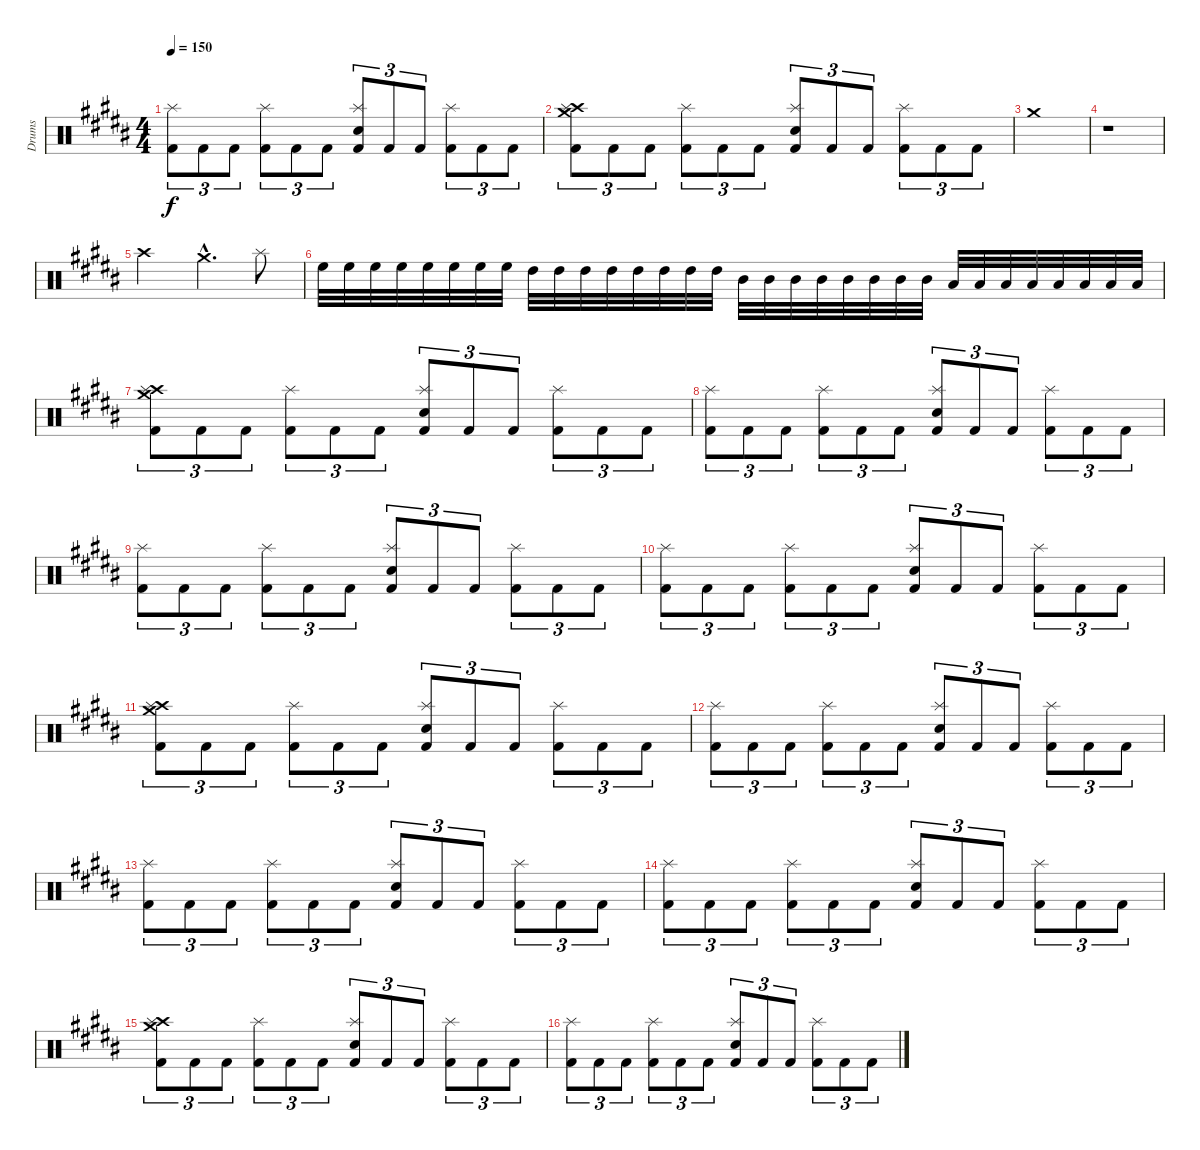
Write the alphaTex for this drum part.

\track ("Drums" "Drums") {instrument percussion}
\staff {score}
\articulation defaults
\ts (4 4)
\tempo 150
\clef neutral
\ks b
("Kick (hit) 2" "Splash (hit)").8{tu (3 2) dy f} "Kick (hit) 2".8{tu (3 2)} "Kick (hit) 2".8{tu (3 2)} ("Kick (hit) 2" "Splash (hit)").8{tu (3 2)} "Kick (hit) 2".8{tu (3 2)} "Kick (hit) 2".8{tu (3 2)} ("Kick (hit) 2" "Snare (hit) 2" "Splash (hit)").8{tu (3 2)} "Kick (hit) 2".8{tu (3 2)} "Kick (hit) 2".8{tu (3 2)} ("Kick (hit) 2" "Splash (hit)").8{tu (3 2)} "Kick (hit) 2".8{tu (3 2)} "Kick (hit) 2".8{tu (3 2)} |
("Kick (hit) 2" "Crash high (hit)" "Crash medium (hit)" "Splash (hit)").8{tu (3 2)} "Kick (hit) 2".8{tu (3 2)} "Kick (hit) 2".8{tu (3 2)} ("Kick (hit) 2" "Splash (hit)").8{tu (3 2)} "Kick (hit) 2".8{tu (3 2)} "Kick (hit) 2".8{tu (3 2)} ("Kick (hit) 2" "Snare (hit) 2" "Splash (hit)").8{tu (3 2)} "Kick (hit) 2".8{tu (3 2)} "Kick (hit) 2".8{tu (3 2)} ("Kick (hit) 2" "Splash (hit)").8{tu (3 2)} "Kick (hit) 2".8{tu (3 2)} "Kick (hit) 2".8{tu (3 2)} |
"Crash medium (hit)".1{volume 10} |
r.1 |
"Crash high (hit)".2 "Crash medium (hit)"{hac}.4{d} "Splash (hit)".8 |
"High Floor Tom (hit)".32 "High Floor Tom (hit)".32 "High Floor Tom (hit)".32 "High Floor Tom (hit)".32 "High Floor Tom (hit)".32 "High Floor Tom (hit)".32 "High Floor Tom (hit)".32 "High Floor Tom (hit)".32 "High Tom (hit)".32 "High Tom (hit)".32 "High Tom (hit)".32 "High Tom (hit)".32 "High Tom (hit)".32 "High Tom (hit)".32 "High Tom (hit)".32 "High Tom (hit)".32 "Mid Tom (hit)".32 "Mid Tom (hit)".32 "Mid Tom (hit)".32 "Mid Tom (hit)".32 "Mid Tom (hit)".32 "Mid Tom (hit)".32 "Mid Tom (hit)".32 "Mid Tom (hit)".32 "Low Tom (hit)".32 "Low Tom (hit)".32 "Low Tom (hit)".32 "Low Tom (hit)".32 "Low Tom (hit)".32 "Low Tom (hit)".32 "Low Tom (hit)".32 "Low Tom (hit)".32 |
("Kick (hit) 2" "Crash high (hit)" "Crash medium (hit)" "Splash (hit)").8{tu (3 2) volume 7} "Kick (hit) 2".8{tu (3 2)} "Kick (hit) 2".8{tu (3 2)} ("Kick (hit) 2" "Splash (hit)").8{tu (3 2)} "Kick (hit) 2".8{tu (3 2)} "Kick (hit) 2".8{tu (3 2)} ("Kick (hit) 2" "Snare (hit) 2" "Splash (hit)").8{tu (3 2)} "Kick (hit) 2".8{tu (3 2)} "Kick (hit) 2".8{tu (3 2)} ("Kick (hit) 2" "Splash (hit)").8{tu (3 2)} "Kick (hit) 2".8{tu (3 2)} "Kick (hit) 2".8{tu (3 2)} |
("Kick (hit) 2" "Splash (hit)").8{tu (3 2)} "Kick (hit) 2".8{tu (3 2)} "Kick (hit) 2".8{tu (3 2)} ("Kick (hit) 2" "Splash (hit)").8{tu (3 2)} "Kick (hit) 2".8{tu (3 2)} "Kick (hit) 2".8{tu (3 2)} ("Kick (hit) 2" "Snare (hit) 2" "Splash (hit)").8{tu (3 2)} "Kick (hit) 2".8{tu (3 2)} "Kick (hit) 2".8{tu (3 2)} ("Kick (hit) 2" "Splash (hit)").8{tu (3 2)} "Kick (hit) 2".8{tu (3 2)} "Kick (hit) 2".8{tu (3 2)} |
("Kick (hit) 2" "Splash (hit)").8{tu (3 2)} "Kick (hit) 2".8{tu (3 2)} "Kick (hit) 2".8{tu (3 2)} ("Kick (hit) 2" "Splash (hit)").8{tu (3 2)} "Kick (hit) 2".8{tu (3 2)} "Kick (hit) 2".8{tu (3 2)} ("Kick (hit) 2" "Snare (hit) 2" "Splash (hit)").8{tu (3 2)} "Kick (hit) 2".8{tu (3 2)} "Kick (hit) 2".8{tu (3 2)} ("Kick (hit) 2" "Splash (hit)").8{tu (3 2)} "Kick (hit) 2".8{tu (3 2)} "Kick (hit) 2".8{tu (3 2)} |
("Kick (hit) 2" "Splash (hit)").8{tu (3 2)} "Kick (hit) 2".8{tu (3 2)} "Kick (hit) 2".8{tu (3 2)} ("Kick (hit) 2" "Splash (hit)").8{tu (3 2)} "Kick (hit) 2".8{tu (3 2)} "Kick (hit) 2".8{tu (3 2)} ("Kick (hit) 2" "Snare (hit) 2" "Splash (hit)").8{tu (3 2)} "Kick (hit) 2".8{tu (3 2)} "Kick (hit) 2".8{tu (3 2)} ("Kick (hit) 2" "Splash (hit)").8{tu (3 2)} "Kick (hit) 2".8{tu (3 2)} "Kick (hit) 2".8{tu (3 2)} |
("Kick (hit) 2" "Crash high (hit)" "Crash medium (hit)" "Splash (hit)").8{tu (3 2) volume 5} "Kick (hit) 2".8{tu (3 2)} "Kick (hit) 2".8{tu (3 2)} ("Kick (hit) 2" "Splash (hit)").8{tu (3 2)} "Kick (hit) 2".8{tu (3 2)} "Kick (hit) 2".8{tu (3 2)} ("Kick (hit) 2" "Snare (hit) 2" "Splash (hit)").8{tu (3 2)} "Kick (hit) 2".8{tu (3 2)} "Kick (hit) 2".8{tu (3 2)} ("Kick (hit) 2" "Splash (hit)").8{tu (3 2)} "Kick (hit) 2".8{tu (3 2)} "Kick (hit) 2".8{tu (3 2)} |
("Kick (hit) 2" "Splash (hit)").8{tu (3 2)} "Kick (hit) 2".8{tu (3 2)} "Kick (hit) 2".8{tu (3 2)} ("Kick (hit) 2" "Splash (hit)").8{tu (3 2)} "Kick (hit) 2".8{tu (3 2)} "Kick (hit) 2".8{tu (3 2)} ("Kick (hit) 2" "Snare (hit) 2" "Splash (hit)").8{tu (3 2)} "Kick (hit) 2".8{tu (3 2)} "Kick (hit) 2".8{tu (3 2)} ("Kick (hit) 2" "Splash (hit)").8{tu (3 2)} "Kick (hit) 2".8{tu (3 2)} "Kick (hit) 2".8{tu (3 2)} |
("Kick (hit) 2" "Splash (hit)").8{tu (3 2)} "Kick (hit) 2".8{tu (3 2)} "Kick (hit) 2".8{tu (3 2)} ("Kick (hit) 2" "Splash (hit)").8{tu (3 2)} "Kick (hit) 2".8{tu (3 2)} "Kick (hit) 2".8{tu (3 2)} ("Kick (hit) 2" "Snare (hit) 2" "Splash (hit)").8{tu (3 2)} "Kick (hit) 2".8{tu (3 2)} "Kick (hit) 2".8{tu (3 2)} ("Kick (hit) 2" "Splash (hit)").8{tu (3 2)} "Kick (hit) 2".8{tu (3 2)} "Kick (hit) 2".8{tu (3 2)} |
("Kick (hit) 2" "Splash (hit)").8{tu (3 2)} "Kick (hit) 2".8{tu (3 2)} "Kick (hit) 2".8{tu (3 2)} ("Kick (hit) 2" "Splash (hit)").8{tu (3 2)} "Kick (hit) 2".8{tu (3 2)} "Kick (hit) 2".8{tu (3 2)} ("Kick (hit) 2" "Snare (hit) 2" "Splash (hit)").8{tu (3 2)} "Kick (hit) 2".8{tu (3 2)} "Kick (hit) 2".8{tu (3 2)} ("Kick (hit) 2" "Splash (hit)").8{tu (3 2)} "Kick (hit) 2".8{tu (3 2)} "Kick (hit) 2".8{tu (3 2)} |
("Kick (hit) 2" "Crash high (hit)" "Crash medium (hit)" "Splash (hit)").8{tu (3 2) volume 3} "Kick (hit) 2".8{tu (3 2)} "Kick (hit) 2".8{tu (3 2)} ("Kick (hit) 2" "Splash (hit)").8{tu (3 2)} "Kick (hit) 2".8{tu (3 2)} "Kick (hit) 2".8{tu (3 2)} ("Kick (hit) 2" "Snare (hit) 2" "Splash (hit)").8{tu (3 2)} "Kick (hit) 2".8{tu (3 2)} "Kick (hit) 2".8{tu (3 2)} ("Kick (hit) 2" "Splash (hit)").8{tu (3 2)} "Kick (hit) 2".8{tu (3 2)} "Kick (hit) 2".8{tu (3 2)} |
("Kick (hit) 2" "Splash (hit)").8{tu (3 2)} "Kick (hit) 2".8{tu (3 2)} "Kick (hit) 2".8{tu (3 2)} ("Kick (hit) 2" "Splash (hit)").8{tu (3 2)} "Kick (hit) 2".8{tu (3 2)} "Kick (hit) 2".8{tu (3 2)} ("Kick (hit) 2" "Snare (hit) 2" "Splash (hit)").8{tu (3 2)} "Kick (hit) 2".8{tu (3 2)} "Kick (hit) 2".8{tu (3 2)} ("Kick (hit) 2" "Splash (hit)").8{tu (3 2)} "Kick (hit) 2".8{tu (3 2)} "Kick (hit) 2".8{tu (3 2)}
